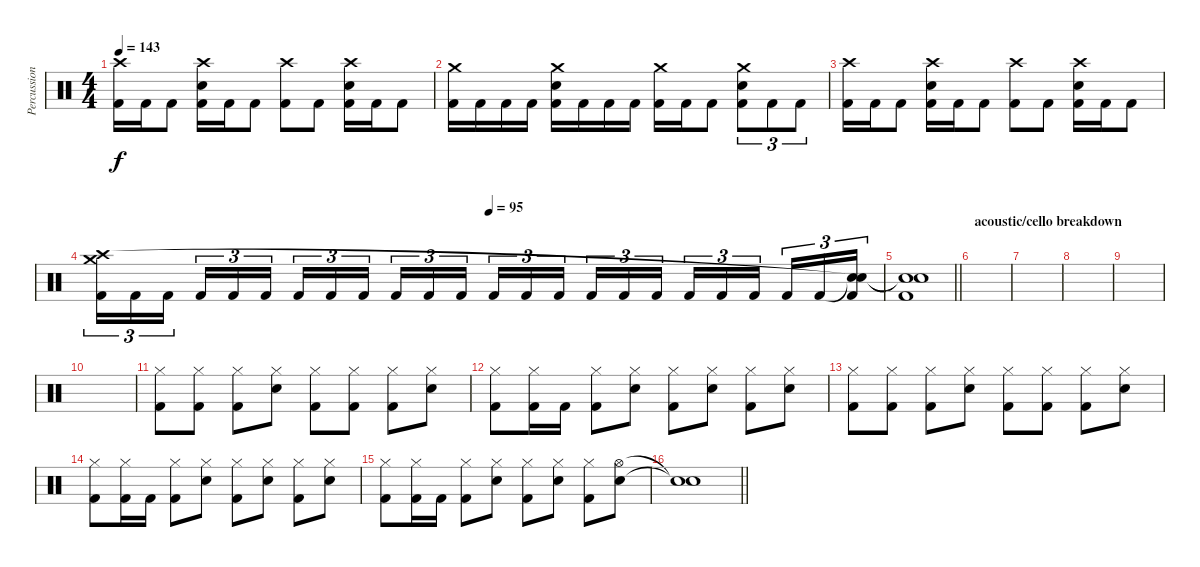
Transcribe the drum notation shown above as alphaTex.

\track ("Percussion" "Percussion") {instrument percussion}
\staff {score}
\articulation defaults
\ts (4 4)
\tempo 143
\clef neutral
\ks c
("Crash high (hit)" "Kick (hit) 2").16{dy f} "Kick (hit) 2".16 "Kick (hit) 2".8 ("Crash high (hit)" "Snare (hit) 2" "Kick (hit) 2").16 "Kick (hit) 2".16 "Kick (hit) 2".8 ("Crash high (hit)" "Kick (hit) 2").8 "Kick (hit) 2".8 ("Crash high (hit)" "Snare (hit) 2" "Kick (hit) 2").16 "Kick (hit) 2".16 "Kick (hit) 2".8 |
("Crash medium (hit)" "Kick (hit) 2").16 "Kick (hit) 2".16 "Kick (hit) 2".16 "Kick (hit) 2".16 ("Crash medium (hit)" "Snare (hit) 2" "Kick (hit) 2").16 "Kick (hit) 2".16 "Kick (hit) 2".16 "Kick (hit) 2".16 ("Crash medium (hit)" "Kick (hit) 2").16 "Kick (hit) 2".16 "Kick (hit) 2".8 ("Crash medium (hit)" "Snare (hit) 2" "Kick (hit) 2").8{tu (3 2)} "Kick (hit) 2".8{tu (3 2)} "Kick (hit) 2".8{tu (3 2)} |
("Crash high (hit)" "Kick (hit) 2").16 "Kick (hit) 2".16 "Kick (hit) 2".8 ("Crash high (hit)" "Snare (hit) 2" "Kick (hit) 2").16 "Kick (hit) 2".16 "Kick (hit) 2".8 ("Crash high (hit)" "Kick (hit) 2").8 "Kick (hit) 2".8 ("Crash high (hit)" "Snare (hit) 2" "Kick (hit) 2").16 "Kick (hit) 2".16 "Kick (hit) 2".8 |
\tempo (95 0.5)
("Crash medium (hit)" "Crash high (hit)" "Kick (hit) 2").16{tu (3 2)} "Kick (hit) 2".16{tu (3 2)} "Kick (hit) 2".16{tu (3 2) beam splitsecondary} "Kick (hit) 2".16{tu (3 2)} "Kick (hit) 2".16{tu (3 2)} "Kick (hit) 2".16{tu (3 2)} "Kick (hit) 2".16{tu (3 2)} "Kick (hit) 2".16{tu (3 2)} "Kick (hit) 2".16{tu (3 2) beam splitsecondary} "Kick (hit) 2".16{tu (3 2)} "Kick (hit) 2".16{tu (3 2)} "Kick (hit) 2".16{tu (3 2)} "Kick (hit) 2".16{tu (3 2) volume 5} "Kick (hit) 2".16{tu (3 2)} "Kick (hit) 2".16{tu (3 2) beam splitsecondary} "Kick (hit) 2".16{tu (3 2)} "Kick (hit) 2".16{tu (3 2)} "Kick (hit) 2".16{tu (3 2)} "Kick (hit) 2".16{tu (3 2)} "Kick (hit) 2".16{tu (3 2)} "Kick (hit) 2".16{tu (3 2) beam splitsecondary} "Kick (hit) 2".16{tu (3 2)} "Kick (hit) 2".16{tu (3 2)} ("Snare (hit)"{t} "Snare (hit)"{t} "Kick (hit) 2").16{tu (3 2)} |
\barLineRight lightlight
("Snare (hit)"{t} "Snare (hit)"{t} "Kick (hit) 2").1 |
\section ("" "acoustic/cello breakdown")
|
|
|
|
|
("Hi-Hat (closed)" "Kick (hit) 2").8 ("Hi-Hat (closed)" "Kick (hit) 2").8 ("Hi-Hat (closed)" "Kick (hit) 2").8 ("Hi-Hat (closed)" "Snare (hit) 2").8 ("Hi-Hat (closed)" "Kick (hit) 2").8 ("Hi-Hat (closed)" "Kick (hit) 2").8 ("Hi-Hat (closed)" "Kick (hit) 2").8 ("Hi-Hat (closed)" "Snare (hit) 2").8 |
("Hi-Hat (closed)" "Kick (hit) 2").8 ("Hi-Hat (closed)" "Kick (hit) 2").16 "Kick (hit) 2".16 ("Hi-Hat (closed)" "Kick (hit) 2").8 ("Hi-Hat (closed)" "Snare (hit) 2").8 ("Hi-Hat (closed)" "Kick (hit) 2").8 ("Hi-Hat (closed)" "Snare (hit) 2").8 ("Hi-Hat (closed)" "Kick (hit) 2").8 ("Hi-Hat (closed)" "Snare (hit) 2").8 |
("Hi-Hat (closed)" "Kick (hit) 2").8 ("Hi-Hat (closed)" "Kick (hit) 2").8 ("Hi-Hat (closed)" "Kick (hit) 2").8 ("Hi-Hat (closed)" "Snare (hit) 2").8 ("Hi-Hat (closed)" "Kick (hit) 2").8 ("Hi-Hat (closed)" "Kick (hit) 2").8 ("Hi-Hat (closed)" "Kick (hit) 2").8 ("Hi-Hat (closed)" "Snare (hit) 2").8 |
("Hi-Hat (closed)" "Kick (hit) 2").8 ("Hi-Hat (closed)" "Kick (hit) 2").16 "Kick (hit) 2".16 ("Hi-Hat (closed)" "Kick (hit) 2").8 ("Hi-Hat (closed)" "Snare (hit) 2").8 ("Hi-Hat (closed)" "Kick (hit) 2").8 ("Hi-Hat (closed)" "Snare (hit) 2").8 ("Hi-Hat (closed)" "Kick (hit) 2").8 ("Hi-Hat (closed)" "Snare (hit) 2").8 |
("Hi-Hat (closed)" "Kick (hit) 2").8 ("Hi-Hat (closed)" "Kick (hit) 2").16 "Kick (hit) 2".16 ("Hi-Hat (closed)" "Kick (hit) 2").8 ("Hi-Hat (closed)" "Snare (hit) 2").8 ("Hi-Hat (closed)" "Kick (hit) 2").8 ("Hi-Hat (closed)" "Snare (hit) 2").8 ("Hi-Hat (closed)" "Kick (hit) 2").8 ("Hi-Hat (open)" "Snare (hit) 2").8 |
\barLineRight lightlight
("Snare (hit)"{t} "Snare (hit)"{t}).1
